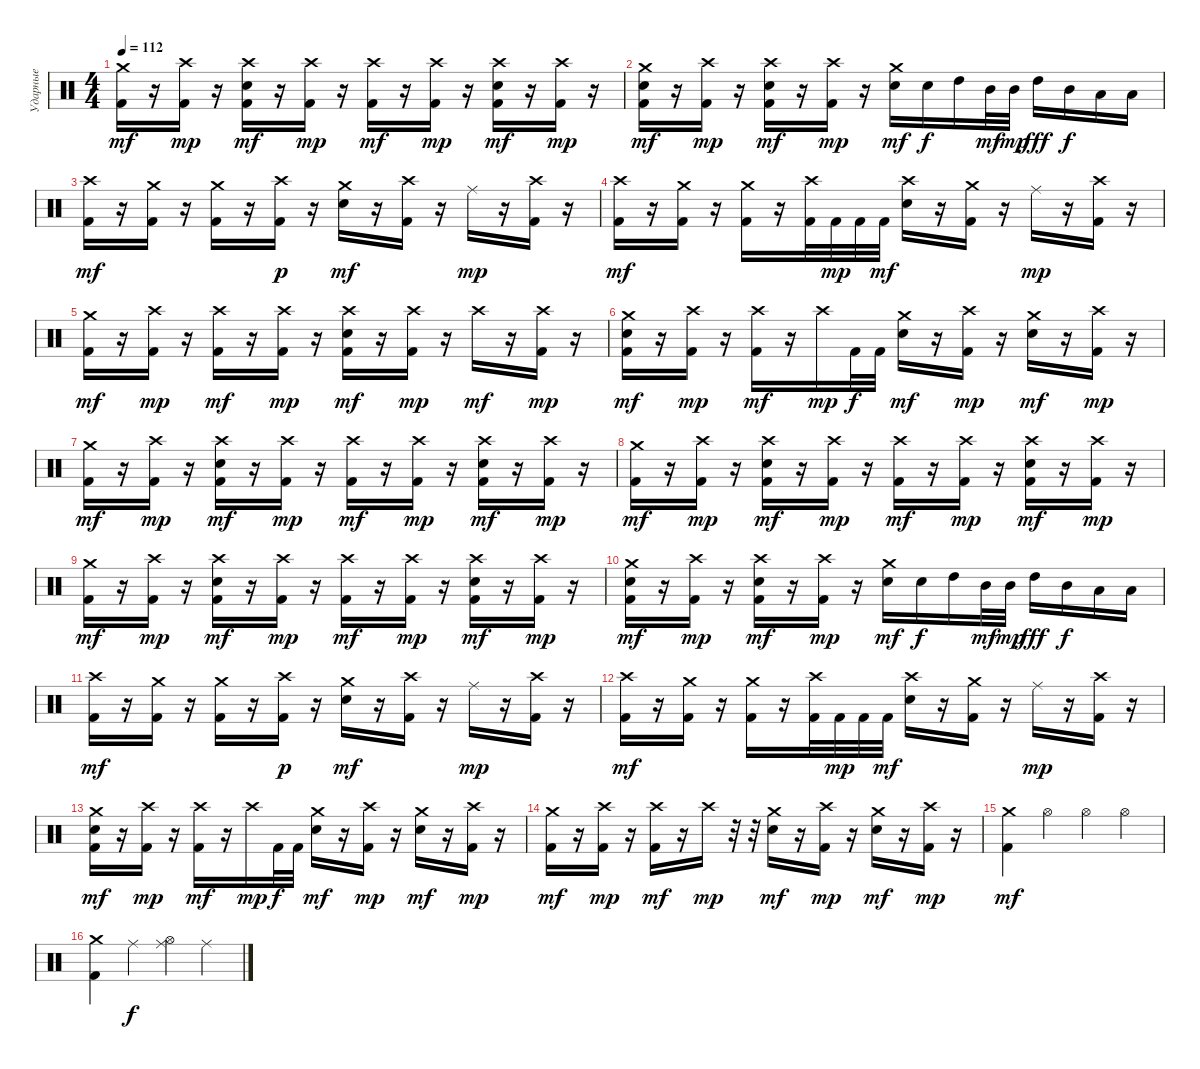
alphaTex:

\track ("Ударные" "Ударные") {instrument percussion}
\staff {score}
\articulation defaults
\ts (4 4)
\tempo 112
\clef neutral
\ks c
("Crash medium (hit)" "Kick (hit) 2").16{dy mf} r.16 ("Crash high (hit)" "Kick (hit) 2").16{dy mp} r.16 ("Crash high (hit)" "Electric Snare (hit)" "Kick (hit) 2").16{dy mf} r.16 ("Crash high (hit)" "Kick (hit) 2").16{dy mp} r.16 ("Crash high (hit)" "Kick (hit) 2").16{dy mf} r.16 ("Crash high (hit)" "Kick (hit) 2").16{dy mp} r.16 ("Crash high (hit)" "Electric Snare (hit)" "Kick (hit) 2").16{dy mf} r.16 ("Crash high (hit)" "Kick (hit) 2").16{dy mp} r.16 |
("Crash medium (hit)" "Electric Snare (hit)" "Kick (hit) 2").16{dy mf} r.16 ("Crash high (hit)" "Kick (hit) 2").16{dy mp} r.16 ("Crash high (hit)" "Electric Snare (hit)" "Kick (hit) 2").16{dy mf} r.16 ("Crash high (hit)" "Kick (hit) 2").16{dy mp} r.16 ("Crash medium (hit)" "Electric Snare (hit)").16{dy mf} "Electric Snare (hit)".16{dy f} "High Tom (hit)".16 "Mid Tom (hit)".32{dy mf} "Mid Tom (hit)".32{dy mp} "High Tom (hit)".16{dy fff} "Mid Tom (hit)".16{dy f} "Low Tom (hit)".16 "Low Tom (hit)".16 |
("Crash high (hit)" "Kick (hit) 2").16{dy mf} r.16 ("Crash medium (hit)" "Kick (hit) 2").16 r.16 ("Crash medium (hit)" "Kick (hit) 2").16 r.16 ("Crash high (hit)" "Kick (hit) 2").16{dy p} r.16 ("Crash medium (hit)" "Electric Snare (hit)").16{dy mf} r.16 ("Crash high (hit)" "Kick (hit) 2").16 r.16 "Ride (middle)".16{dy mp} r.16 ("Crash high (hit)" "Kick (hit) 2").16 r.16 |
("Crash high (hit)" "Kick (hit) 2").16{dy mf} r.16 ("Crash medium (hit)" "Kick (hit) 2").16 r.16 ("Crash medium (hit)" "Kick (hit) 2").16 r.16 ("Crash high (hit)" "Kick (hit) 2").32 "Kick (hit) 2".32{dy mp} "Kick (hit) 2".32 "Kick (hit) 2".32{dy mf} ("Crash high (hit)" "Electric Snare (hit)").16 r.16 ("Crash medium (hit)" "Kick (hit) 2").16 r.16 "Ride (middle)".16{dy mp} r.16 ("Crash high (hit)" "Kick (hit) 2").16 r.16 |
("Crash medium (hit)" "Kick (hit) 2").16{dy mf} r.16 ("Crash high (hit)" "Kick (hit) 2").16{dy mp} r.16 ("Crash high (hit)" "Kick (hit) 2").16{dy mf} r.16 ("Crash high (hit)" "Kick (hit) 2").16{dy mp} r.16 ("Crash high (hit)" "Electric Snare (hit)" "Kick (hit) 2").16{dy mf} r.16 ("Crash high (hit)" "Kick (hit) 2").16{dy mp} r.16 "Crash high (hit)".16{dy mf} r.16 ("Crash high (hit)" "Kick (hit) 2").16{dy mp} r.16 |
("Crash medium (hit)" "Electric Snare (hit)" "Kick (hit) 2").16{dy mf} r.16 ("Crash high (hit)" "Kick (hit) 2").16{dy mp} r.16 ("Crash high (hit)" "Kick (hit) 2").16{dy mf} r.16 "Crash high (hit)".16{dy mp} "Kick (hit) 2".32{dy f} "Kick (hit) 2".32 ("Crash medium (hit)" "Electric Snare (hit)").16{dy mf} r.16 ("Crash high (hit)" "Kick (hit) 2").16{dy mp} r.16 ("Crash medium (hit)" "Electric Snare (hit)").16{dy mf} r.16 ("Crash high (hit)" "Kick (hit) 2").16{dy mp} r.16 |
("Crash medium (hit)" "Kick (hit) 2").16{dy mf} r.16 ("Crash high (hit)" "Kick (hit) 2").16{dy mp} r.16 ("Crash high (hit)" "Electric Snare (hit)" "Kick (hit) 2").16{dy mf} r.16 ("Crash high (hit)" "Kick (hit) 2").16{dy mp} r.16 ("Crash high (hit)" "Kick (hit) 2").16{dy mf} r.16 ("Crash high (hit)" "Kick (hit) 2").16{dy mp} r.16 ("Crash high (hit)" "Electric Snare (hit)" "Kick (hit) 2").16{dy mf} r.16 ("Crash high (hit)" "Kick (hit) 2").16{dy mp} r.16 |
("Crash medium (hit)" "Kick (hit) 2").16{dy mf} r.16 ("Crash high (hit)" "Kick (hit) 2").16{dy mp} r.16 ("Crash high (hit)" "Electric Snare (hit)" "Kick (hit) 2").16{dy mf} r.16 ("Crash high (hit)" "Kick (hit) 2").16{dy mp} r.16 ("Crash high (hit)" "Kick (hit) 2").16{dy mf} r.16 ("Crash high (hit)" "Kick (hit) 2").16{dy mp} r.16 ("Crash high (hit)" "Electric Snare (hit)" "Kick (hit) 2").16{dy mf} r.16 ("Crash high (hit)" "Kick (hit) 2").16{dy mp} r.16 |
("Crash medium (hit)" "Kick (hit) 2").16{dy mf} r.16 ("Crash high (hit)" "Kick (hit) 2").16{dy mp} r.16 ("Crash high (hit)" "Electric Snare (hit)" "Kick (hit) 2").16{dy mf} r.16 ("Crash high (hit)" "Kick (hit) 2").16{dy mp} r.16 ("Crash high (hit)" "Kick (hit) 2").16{dy mf} r.16 ("Crash high (hit)" "Kick (hit) 2").16{dy mp} r.16 ("Crash high (hit)" "Electric Snare (hit)" "Kick (hit) 2").16{dy mf} r.16 ("Crash high (hit)" "Kick (hit) 2").16{dy mp} r.16 |
("Crash medium (hit)" "Electric Snare (hit)" "Kick (hit) 2").16{dy mf} r.16 ("Crash high (hit)" "Kick (hit) 2").16{dy mp} r.16 ("Crash high (hit)" "Electric Snare (hit)" "Kick (hit) 2").16{dy mf} r.16 ("Crash high (hit)" "Kick (hit) 2").16{dy mp} r.16 ("Crash medium (hit)" "Electric Snare (hit)").16{dy mf} "Electric Snare (hit)".16{dy f} "High Tom (hit)".16 "Mid Tom (hit)".32{dy mf} "Mid Tom (hit)".32{dy mp} "High Tom (hit)".16{dy fff} "Mid Tom (hit)".16{dy f} "Low Tom (hit)".16 "Low Tom (hit)".16 |
("Crash high (hit)" "Kick (hit) 2").16{dy mf} r.16 ("Crash medium (hit)" "Kick (hit) 2").16 r.16 ("Crash medium (hit)" "Kick (hit) 2").16 r.16 ("Crash high (hit)" "Kick (hit) 2").16{dy p} r.16 ("Crash medium (hit)" "Electric Snare (hit)").16{dy mf} r.16 ("Crash high (hit)" "Kick (hit) 2").16 r.16 "Ride (middle)".16{dy mp} r.16 ("Crash high (hit)" "Kick (hit) 2").16 r.16 |
("Crash high (hit)" "Kick (hit) 2").16{dy mf} r.16 ("Crash medium (hit)" "Kick (hit) 2").16 r.16 ("Crash medium (hit)" "Kick (hit) 2").16 r.16 ("Crash high (hit)" "Kick (hit) 2").32 "Kick (hit) 2".32{dy mp} "Kick (hit) 2".32 "Kick (hit) 2".32{dy mf} ("Crash high (hit)" "Electric Snare (hit)").16 r.16 ("Crash medium (hit)" "Kick (hit) 2").16 r.16 "Ride (middle)".16{dy mp} r.16 ("Crash high (hit)" "Kick (hit) 2").16 r.16 |
("Crash medium (hit)" "Electric Snare (hit)" "Kick (hit) 2").16{dy mf} r.16 ("Crash high (hit)" "Kick (hit) 2").16{dy mp} r.16 ("Crash high (hit)" "Kick (hit) 2").16{dy mf} r.16 "Crash high (hit)".16{dy mp} "Kick (hit) 2".32{dy f} "Kick (hit) 2".32 ("Crash medium (hit)" "Electric Snare (hit)").16{dy mf} r.16 ("Crash high (hit)" "Kick (hit) 2").16{dy mp} r.16 ("Crash medium (hit)" "Electric Snare (hit)").16{dy mf} r.16 ("Crash high (hit)" "Kick (hit) 2").16{dy mp} r.16 |
("Crash medium (hit)" "Kick (hit) 2").16{dy mf} r.16 ("Crash high (hit)" "Kick (hit) 2").16{dy mp} r.16 ("Crash high (hit)" "Kick (hit) 2").16{dy mf} r.16 "Crash high (hit)".16{dy mp} r.32 r.32 ("Crash medium (hit)" "Electric Snare (hit)").16{dy mf} r.16 ("Crash high (hit)" "Kick (hit) 2").16{dy mp} r.16 ("Crash medium (hit)" "Electric Snare (hit)").16{dy mf} r.16 ("Crash high (hit)" "Kick (hit) 2").16{dy mp} r.16 |
("Crash medium (hit)" "Kick (hit) 2").4{dy mf} "Hi-Hat (open)".4 "Hi-Hat (open)".4 "Hi-Hat (open)".4 |
("Crash medium (hit)" "Kick (hit) 2").4 "Ride (middle)".4{dy f} ("Hi-Hat (open)" "Ride (middle)").4 "Ride (middle)".4
